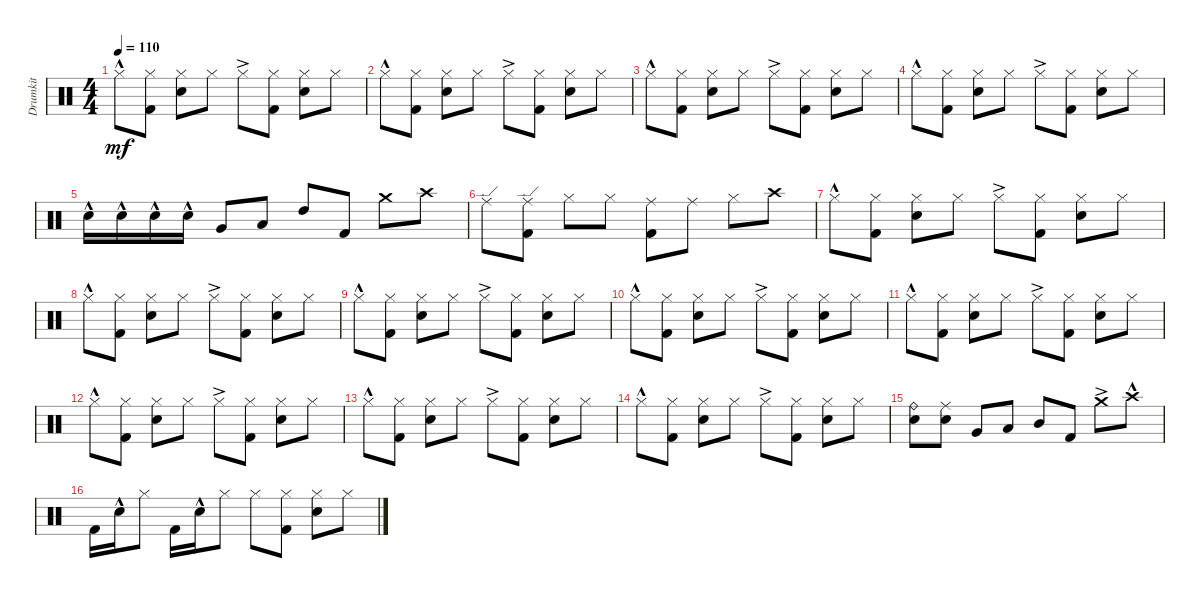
\track ("Drumkit" "Drumkit") {instrument percussion}
\staff {score}
\articulation defaults
\ts (4 4)
\tempo 110
\clef neutral
\ks c "Hi-Hat (closed)"{hac}.8{dy mf}
("Hi-Hat (closed)" "Kick (hit) 2").8 ("Hi-Hat (closed)" "Snare (hit) 2").8 "Hi-Hat (closed)".8 "Hi-Hat (closed)"{ac}.8 ("Hi-Hat (closed)" "Kick (hit) 2").8 ("Hi-Hat (closed)" "Snare (hit) 2").8 "Hi-Hat (closed)".8 |
"Hi-Hat (closed)"{hac}.8 ("Hi-Hat (closed)" "Kick (hit) 2").8 ("Hi-Hat (closed)" "Snare (hit) 2").8 "Hi-Hat (closed)".8 "Hi-Hat (closed)"{ac}.8 ("Hi-Hat (closed)" "Kick (hit) 2").8 ("Hi-Hat (closed)" "Snare (hit) 2").8 "Hi-Hat (closed)".8 |
"Hi-Hat (closed)"{hac}.8 ("Hi-Hat (closed)" "Kick (hit) 2").8 ("Hi-Hat (closed)" "Snare (hit) 2").8 "Hi-Hat (closed)".8 "Hi-Hat (closed)"{ac}.8 ("Hi-Hat (closed)" "Kick (hit) 2").8 ("Hi-Hat (closed)" "Snare (hit) 2").8 "Hi-Hat (closed)".8 |
"Hi-Hat (closed)"{hac}.8 ("Hi-Hat (closed)" "Kick (hit) 2").8 ("Hi-Hat (closed)" "Snare (hit) 2").8 "Hi-Hat (closed)".8 "Hi-Hat (closed)"{ac}.8 ("Hi-Hat (closed)" "Kick (hit) 2").8 ("Hi-Hat (closed)" "Snare (hit) 2").8 "Hi-Hat (closed)".8 |
"Snare (hit) 2"{hac}.16 "Snare (hit) 2"{hac}.16 "Snare (hit) 2"{hac}.16 "Snare (hit) 2"{hac}.16 "Very Low Tom (hit)".8 "Low Tom (hit)".8 "High Tom (hit)".8 "Kick (hit) 2".8 "Crash medium (hit)".8 "Crash high (hit)".8 |
"Ride (edge)".8 ("Ride (edge)" "Kick (hit) 2").8 "Hi-Hat (closed)".8 "Hi-Hat (closed)".8 ("Ride (middle)" "Kick (hit) 2").8 "Ride (middle)".8 "Hi-Hat (closed)".8 "Crash high (hit)".8 |
"Hi-Hat (closed)"{hac}.8 ("Hi-Hat (closed)" "Kick (hit) 2").8 ("Hi-Hat (closed)" "Snare (hit) 2").8 "Hi-Hat (closed)".8 "Hi-Hat (closed)"{ac}.8 ("Hi-Hat (closed)" "Kick (hit) 2").8 ("Hi-Hat (closed)" "Snare (hit) 2").8 "Hi-Hat (closed)".8 |
"Hi-Hat (closed)"{hac}.8 ("Hi-Hat (closed)" "Kick (hit) 2").8 ("Hi-Hat (closed)" "Snare (hit) 2").8 "Hi-Hat (closed)".8 "Hi-Hat (closed)"{ac}.8 ("Hi-Hat (closed)" "Kick (hit) 2").8 ("Hi-Hat (closed)" "Snare (hit) 2").8 "Hi-Hat (closed)".8 |
"Hi-Hat (closed)"{hac}.8 ("Hi-Hat (closed)" "Kick (hit) 2").8 ("Hi-Hat (closed)" "Snare (hit) 2").8 "Hi-Hat (closed)".8 "Hi-Hat (closed)"{ac}.8 ("Hi-Hat (closed)" "Kick (hit) 2").8 ("Hi-Hat (closed)" "Snare (hit) 2").8 "Hi-Hat (closed)".8 |
"Hi-Hat (closed)"{hac}.8 ("Hi-Hat (closed)" "Kick (hit) 2").8 ("Hi-Hat (closed)" "Snare (hit) 2").8 "Hi-Hat (closed)".8 "Hi-Hat (closed)"{ac}.8 ("Hi-Hat (closed)" "Kick (hit) 2").8 ("Hi-Hat (closed)" "Snare (hit) 2").8 "Hi-Hat (closed)".8 |
"Hi-Hat (closed)"{hac}.8 ("Hi-Hat (closed)" "Kick (hit) 2").8 ("Hi-Hat (closed)" "Snare (hit) 2").8 "Hi-Hat (closed)".8 "Hi-Hat (closed)"{ac}.8 ("Hi-Hat (closed)" "Kick (hit) 2").8 ("Hi-Hat (closed)" "Snare (hit) 2").8 "Hi-Hat (closed)".8 |
"Hi-Hat (closed)"{hac}.8 ("Hi-Hat (closed)" "Kick (hit) 2").8 ("Hi-Hat (closed)" "Snare (hit) 2").8 "Hi-Hat (closed)".8 "Hi-Hat (closed)"{ac}.8 ("Hi-Hat (closed)" "Kick (hit) 2").8 ("Hi-Hat (closed)" "Snare (hit) 2").8 "Hi-Hat (closed)".8 |
"Hi-Hat (closed)"{hac}.8 ("Hi-Hat (closed)" "Kick (hit) 2").8 ("Hi-Hat (closed)" "Snare (hit) 2").8 "Hi-Hat (closed)".8 "Hi-Hat (closed)"{ac}.8 ("Hi-Hat (closed)" "Kick (hit) 2").8 ("Hi-Hat (closed)" "Snare (hit) 2").8 "Hi-Hat (closed)".8 |
"Hi-Hat (closed)"{hac}.8 ("Hi-Hat (closed)" "Kick (hit) 2").8 ("Hi-Hat (closed)" "Snare (hit) 2").8 "Hi-Hat (closed)".8 "Hi-Hat (closed)"{ac}.8 ("Hi-Hat (closed)" "Kick (hit) 2").8 ("Hi-Hat (closed)" "Snare (hit) 2").8 "Hi-Hat (closed)".8 |
("Snare (hit) 2" "Ride (bell)").8 ("Ride (middle)" "Snare (hit) 2").8 "Very Low Tom (hit)".8 "Low Tom (hit)".8 "Mid Tom (hit)".8 "Kick (hit) 2".8 "Crash medium (hit)"{ac}.8 "Crash high (hit)"{hac}.8 |
"Kick (hit) 2".16 "Snare (hit) 2"{hac}.16 "Hi-Hat (closed)".8 "Kick (hit) 2".16 "Snare (hit) 2"{hac}.16 "Hi-Hat (closed)".8 "Hi-Hat (closed)".8 ("Hi-Hat (closed)" "Kick (hit) 2").8 ("Hi-Hat (closed)" "Snare (hit) 2").8 "Hi-Hat (closed)".8
